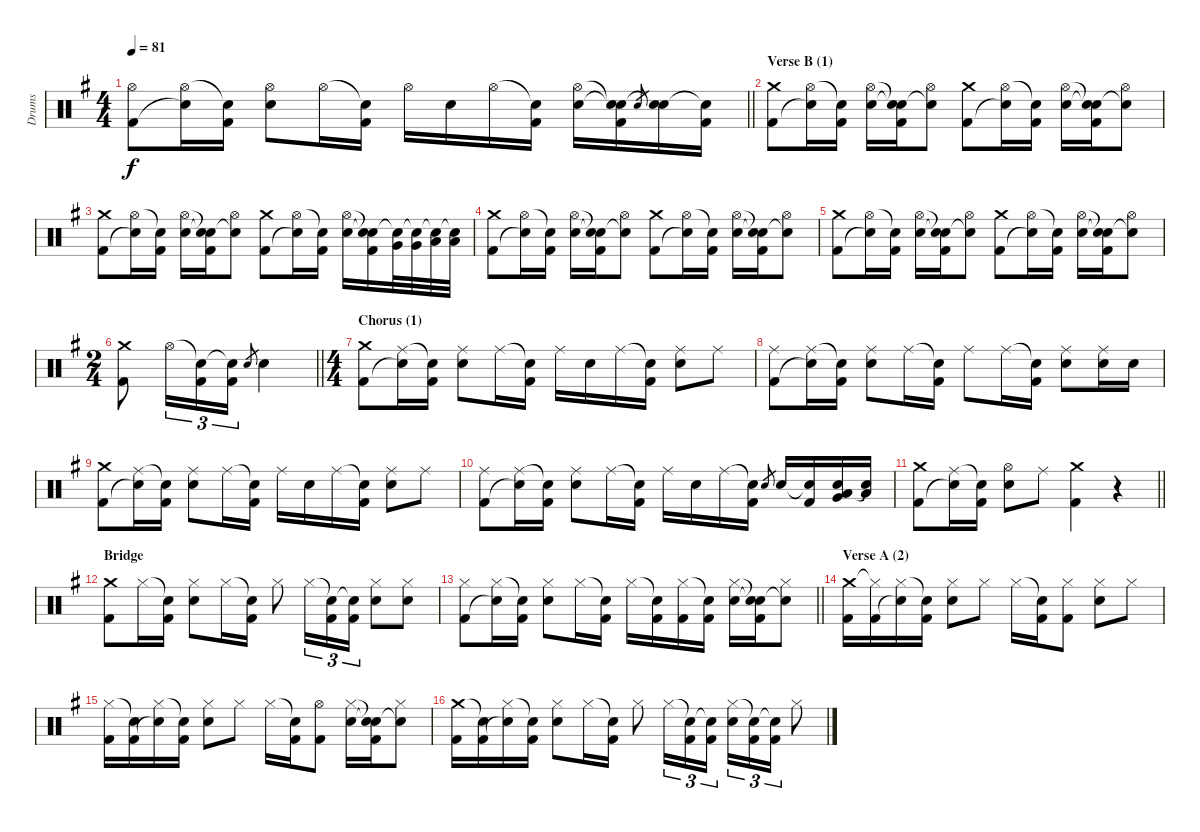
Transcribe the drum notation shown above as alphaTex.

\track ("Drums" "Drums") {instrument percussion}
\staff {score}
\articulation defaults
\ts (4 4)
\tempo 81
\clef neutral
\barLineRight lightlight
\ks g
("Hi-Hat (open)" "Kick (hit) 2").8{dy f} ("Hi-Hat (open)" "Snare (hit)"{t}).16 ("Snare (hit)"{t} "Kick (hit) 2").16 ("Hi-Hat (open)" "Electric Snare (hit)").8 "Hi-Hat (open)".16 ("Snare (hit)"{t} "Kick (hit) 2").16 "Hi-Hat (open)".16 "Electric Snare (hit)".16 "Hi-Hat (open)".16 ("Snare (hit)"{t} "Kick (hit) 2").16 ("Hi-Hat (open)" "Electric Snare (hit)").16 ("Snare (hit)"{t} "Snare (hit)"{t} "Kick (hit) 2").16 "Electric Snare (hit)".8{gr} ("Electric Snare (hit)" "Snare (hit)"{t}).16 ("Snare (hit)"{t} "Kick (hit) 2").16 |
\section ("" "Verse B (1)")
("Crash medium (hit)" "Kick (hit) 2").8 ("Hi-Hat (open)" "Snare (hit)"{t}).16 ("Snare (hit)"{t} "Kick (hit) 2").16 ("Hi-Hat (open)" "Electric Snare (hit)").16 ("Snare (hit)"{t} "Snare (hit)"{t} "Kick (hit) 2").16 ("Hi-Hat (open)" "Snare (hit)"{t}).8 ("Crash medium (hit)" "Kick (hit) 2").8 ("Hi-Hat (open)" "Snare (hit)"{t}).16 ("Snare (hit)"{t} "Kick (hit) 2").16 ("Hi-Hat (open)" "Electric Snare (hit)").16 ("Snare (hit)"{t} "Snare (hit)"{t} "Kick (hit) 2").16 ("Hi-Hat (open)" "Snare (hit)"{t}).8 |
("Crash medium (hit)" "Kick (hit) 2").8 ("Hi-Hat (open)" "Snare (hit)"{t}).16 ("Snare (hit)"{t} "Kick (hit) 2").16 ("Hi-Hat (open)" "Electric Snare (hit)").16 ("Snare (hit)"{t} "Snare (hit)"{t} "Kick (hit) 2").16 ("Hi-Hat (open)" "Snare (hit)"{t}).8 ("Crash medium (hit)" "Kick (hit) 2").8 ("Hi-Hat (open)" "Snare (hit)"{t}).16 ("Snare (hit)"{t} "Kick (hit) 2").16 ("Hi-Hat (open)" "Electric Snare (hit)").16 ("Snare (hit)"{t} "Snare (hit)"{t} "Kick (hit) 2").16 ("Very Low Tom (hit)" "Snare (hit)"{t}).32 ("Very Low Tom (hit)" "Snare (hit)"{t}).32 ("Low Floor Tom (hit)" "Snare (hit)"{t}).32 ("Low Floor Tom (hit)" "Snare (hit)"{t}).32 |
("Crash medium (hit)" "Kick (hit) 2").8 ("Hi-Hat (open)" "Snare (hit)"{t}).16 ("Snare (hit)"{t} "Kick (hit) 2").16 ("Hi-Hat (open)" "Electric Snare (hit)").16 ("Snare (hit)"{t} "Snare (hit)"{t} "Kick (hit) 2").16 ("Hi-Hat (open)" "Snare (hit)"{t}).8 ("Crash medium (hit)" "Kick (hit) 2").8 ("Hi-Hat (open)" "Snare (hit)"{t}).16 ("Snare (hit)"{t} "Kick (hit) 2").16 ("Hi-Hat (open)" "Electric Snare (hit)").16 ("Snare (hit)"{t} "Snare (hit)"{t} "Kick (hit) 2").16 ("Hi-Hat (open)" "Snare (hit)"{t}).8 |
("Crash medium (hit)" "Kick (hit) 2").8 ("Hi-Hat (open)" "Snare (hit)"{t}).16 ("Snare (hit)"{t} "Kick (hit) 2").16 ("Hi-Hat (open)" "Electric Snare (hit)").16 ("Snare (hit)"{t} "Snare (hit)"{t} "Kick (hit) 2").16 ("Hi-Hat (open)" "Snare (hit)"{t}).8 ("Crash medium (hit)" "Kick (hit) 2").8 ("Hi-Hat (open)" "Snare (hit)"{t}).16 ("Snare (hit)"{t} "Kick (hit) 2").16 ("Hi-Hat (open)" "Electric Snare (hit)").16 ("Snare (hit)"{t} "Snare (hit)"{t} "Kick (hit) 2").16 ("Hi-Hat (open)" "Snare (hit)"{t}).8 |
\ts (2 4)
\barLineRight lightlight
("Crash medium (hit)" "Kick (hit) 2").8 "Hi-Hat (open)".16{tu (3 2)} ("Snare (hit)"{t} "Kick (hit) 2").16{tu (3 2)} ("Snare (hit)"{t} "Kick (hit) 2").16{tu (3 2)} "Electric Snare (hit)".8{gr} "Electric Snare (hit)".4 |
\ts (4 4)
\section ("" "Chorus (1)")
("Crash medium (hit)" "Kick (hit) 2").8 ("Ride (middle)" "Snare (hit)"{t}).16 ("Snare (hit)"{t} "Kick (hit) 2").16 ("Ride (middle)" "Electric Snare (hit)").8 "Ride (middle)".16 ("Snare (hit)"{t} "Kick (hit) 2").16 "Ride (middle)".16 "Electric Snare (hit)".16 "Ride (middle)".16 ("Snare (hit)"{t} "Kick (hit) 2").16 ("Ride (middle)" "Electric Snare (hit)").8 "Ride (middle)".8 |
("Ride (middle)" "Kick (hit) 2").8 ("Ride (middle)" "Snare (hit)"{t}).16 ("Snare (hit)"{t} "Kick (hit) 2").16 ("Ride (middle)" "Electric Snare (hit)").8 "Ride (middle)".16 ("Snare (hit)"{t} "Kick (hit) 2").16 "Ride (middle)".8 "Ride (middle)".16 ("Snare (hit)"{t} "Kick (hit) 2").16 ("Ride (middle)" "Electric Snare (hit)").8 ("Ride (middle)" "Electric Snare (hit)").16 "Electric Snare (hit)".16 |
("Crash medium (hit)" "Kick (hit) 2").8 ("Ride (middle)" "Snare (hit)"{t}).16 ("Snare (hit)"{t} "Kick (hit) 2").16 ("Ride (middle)" "Electric Snare (hit)").8 "Ride (middle)".16 ("Snare (hit)"{t} "Kick (hit) 2").16 "Ride (middle)".16 "Electric Snare (hit)".16 "Ride (middle)".16 ("Snare (hit)"{t} "Kick (hit) 2").16 ("Ride (middle)" "Electric Snare (hit)").8 "Ride (middle)".8 |
("Ride (middle)" "Kick (hit) 2").8 ("Ride (middle)" "Snare (hit)"{t}).16 ("Snare (hit)"{t} "Kick (hit) 2").16 ("Ride (middle)" "Electric Snare (hit)").8 "Ride (middle)".16 ("Snare (hit)"{t} "Kick (hit) 2").16 "Ride (middle)".16 "Electric Snare (hit)".16 "Ride (middle)".16 ("Snare (hit)"{t} "Kick (hit) 2").16 "Electric Snare (hit)".8{gr} "Electric Snare (hit)".16 ("Snare (hit)"{t} "Kick (hit) 2").16 ("Very Low Tom (hit)" "Low Floor Tom (hit)" "Snare (hit)").16 ("Low Floor Tom (hit)" "Snare (hit)"{t}).16 |
\barLineRight lightlight
("Crash medium (hit)" "Kick (hit) 2").8 ("Ride (middle)" "Snare (hit)"{t}).16 ("Snare (hit)"{t} "Kick (hit) 2").16 ("Hi-Hat (open)" "Electric Snare (hit)").8 "Ride (middle)".8 ("Crash medium (hit)" "Kick (hit) 2").4 r.4 |
\section ("" "Bridge")
("Crash medium (hit)" "Kick (hit) 2").8 "Hi-Hat (closed)".16 ("Snare (hit)"{t} "Kick (hit) 2").16 ("Hi-Hat (closed)" "Electric Snare (hit)").8 "Hi-Hat (closed)".16 ("Snare (hit)"{t} "Kick (hit) 2").16 "Hi-Hat (closed)".8 "Hi-Hat (closed)".16{tu (3 2)} ("Snare (hit)"{t} "Kick (hit) 2").16{tu (3 2)} ("Snare (hit)"{t} "Kick (hit) 2").16{tu (3 2)} ("Hi-Hat (closed)" "Electric Snare (hit)").8 ("Hi-Hat (closed)" "Electric Snare (hit)").8 |
\barLineRight lightlight
("Hi-Hat (closed)" "Kick (hit) 2").8 ("Hi-Hat (closed)" "Snare (hit)"{t}).16 ("Snare (hit)"{t} "Kick (hit) 2").16 ("Hi-Hat (closed)" "Electric Snare (hit)").8 "Hi-Hat (closed)".16 ("Snare (hit)"{t} "Kick (hit) 2").16 "Hi-Hat (closed)".16 ("Snare (hit)"{t} "Kick (hit) 2").16 ("Hi-Hat (closed)" "Kick (hit) 2").16 ("Snare (hit)"{t} "Kick (hit) 2").16 ("Hi-Hat (closed)" "Electric Snare (hit)").16 ("Snare (hit)"{t} "Snare (hit)"{t} "Kick (hit) 2").16 ("Hi-Hat (closed)" "Snare (hit)"{t}).8 |
\section ("" "Verse A (2)")
("Crash medium (hit)" "Kick (hit) 2").16 ("Hi-Hat (closed)"{t} "Kick (hit) 2").16 ("Hi-Hat (closed)" "Snare (hit)"{t}).16 ("Snare (hit)"{t} "Kick (hit) 2").16 ("Hi-Hat (closed)" "Electric Snare (hit)").8 "Hi-Hat (closed)".8 "Hi-Hat (closed)".16 ("Snare (hit)"{t} "Kick (hit) 2").16 ("Hi-Hat (closed)" "Kick (hit) 2").8 ("Hi-Hat (closed)" "Electric Snare (hit)").8 "Hi-Hat (closed)".8 |
("Hi-Hat (closed)" "Kick (hit) 2").16 ("Snare (hit)"{t} "Kick (hit) 2").16 ("Hi-Hat (closed)" "Snare (hit)"{t}).16 ("Snare (hit)"{t} "Kick (hit) 2").16 ("Hi-Hat (closed)" "Electric Snare (hit)").8 "Hi-Hat (closed)".8 "Hi-Hat (closed)".16 ("Snare (hit)"{t} "Kick (hit) 2").16 ("Hi-Hat (open)" "Kick (hit) 2").8 ("Hi-Hat (closed)" "Electric Snare (hit)").16 ("Snare (hit)"{t} "Snare (hit)"{t} "Kick (hit) 2").16 ("Hi-Hat (closed)" "Snare (hit)"{t}).8 |
("Crash medium (hit)" "Kick (hit) 2").16 ("Snare (hit)"{t} "Kick (hit) 2").16 ("Hi-Hat (closed)" "Snare (hit)"{t}).16 ("Snare (hit)"{t} "Kick (hit) 2").16 ("Hi-Hat (closed)" "Electric Snare (hit)").8 "Hi-Hat (closed)".16 ("Snare (hit)"{t} "Kick (hit) 2").16 "Hi-Hat (closed)".8 "Hi-Hat (closed)".16{tu (3 2)} ("Snare (hit)"{t} "Kick (hit) 2").16{tu (3 2)} ("Snare (hit)"{t} "Kick (hit) 2").16{tu (3 2)} ("Hi-Hat (closed)" "Electric Snare (hit)").16{tu (3 2)} ("Snare (hit)"{t} "Kick (hit) 2").16{tu (3 2)} ("Snare (hit)"{t} "Kick (hit) 2").16{tu (3 2)} "Hi-Hat (closed)".8
